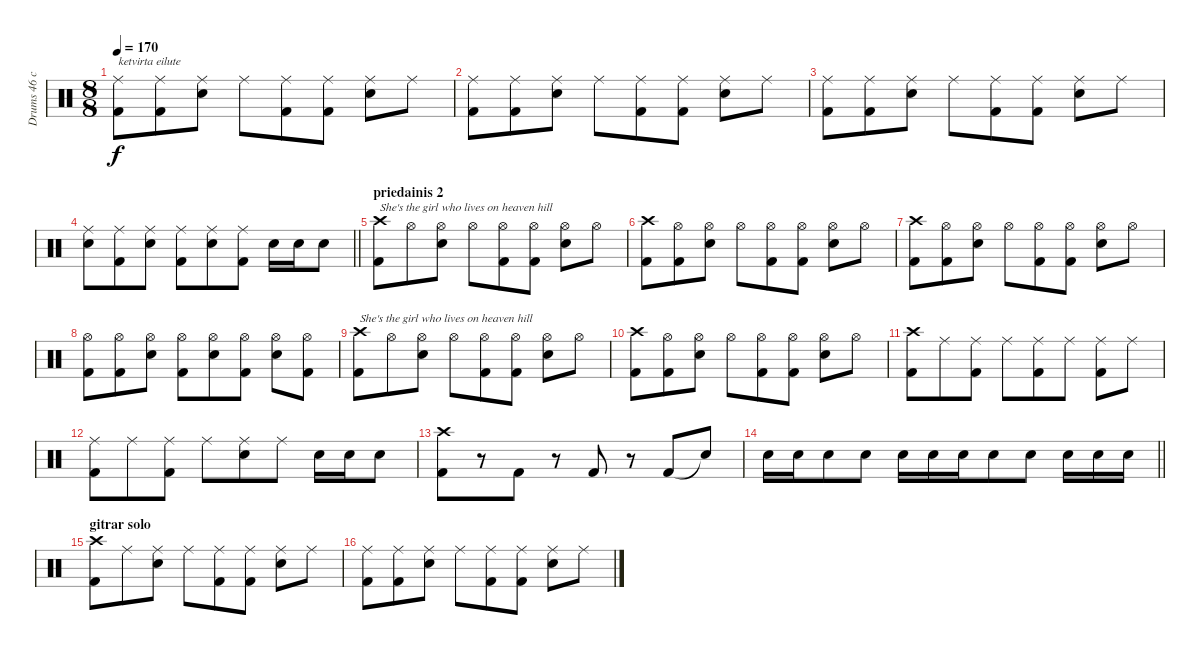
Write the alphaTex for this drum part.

\track ("Drums 46 chorus" "Drums 46 c") {mute instrument percussion}
\staff {score}
\articulation defaults
\ts (8 8)
\tempo 170
\clef neutral
\ks c
("Ride (middle)" "Kick (hit) 2").8{txt "ketvirta eilute" dy f} ("Ride (middle)" "Kick (hit) 2").8 ("Ride (middle)" "Snare (hit) 2").8 "Ride (middle)".8 ("Ride (middle)" "Kick (hit) 2").8 ("Ride (middle)" "Kick (hit) 2").8 ("Ride (middle)" "Snare (hit) 2").8 "Ride (middle)".8 |
("Ride (middle)" "Kick (hit) 2").8 ("Ride (middle)" "Kick (hit) 2").8 ("Ride (middle)" "Snare (hit) 2").8 "Ride (middle)".8 ("Ride (middle)" "Kick (hit) 2").8 ("Ride (middle)" "Kick (hit) 2").8 ("Ride (middle)" "Snare (hit) 2").8 "Ride (middle)".8 |
("Ride (middle)" "Kick (hit) 2").8 ("Ride (middle)" "Kick (hit) 2").8 ("Ride (middle)" "Snare (hit) 2").8 "Ride (middle)".8 ("Ride (middle)" "Kick (hit) 2").8 ("Ride (middle)" "Kick (hit) 2").8 ("Ride (middle)" "Snare (hit) 2").8 "Ride (middle)".8 |
\barLineRight lightlight
("Ride (middle)" "Snare (hit) 2").8 ("Ride (middle)" "Kick (hit) 2").8 ("Ride (middle)" "Snare (hit) 2").8 ("Ride (middle)" "Kick (hit) 2").8 ("Ride (middle)" "Snare (hit) 2").8 ("Ride (middle)" "Kick (hit) 2").8 "Snare (hit) 2".16 "Snare (hit) 2".16 "Snare (hit) 2".8 |
\section ("" "priedainis 2")
("Crash high (hit)" "Kick (hit) 2").8{txt "She's the girl who lives on heaven hill"} "Hi-Hat (open)".8 ("Hi-Hat (open)" "Snare (hit) 2").8 "Hi-Hat (open)".8 ("Hi-Hat (open)" "Kick (hit) 2").8 ("Hi-Hat (open)" "Kick (hit) 2").8 ("Hi-Hat (open)" "Snare (hit) 2").8 "Hi-Hat (open)".8 |
("Crash high (hit)" "Kick (hit) 2").8 ("Hi-Hat (open)" "Kick (hit) 2").8 ("Hi-Hat (open)" "Snare (hit) 2").8 "Hi-Hat (open)".8 ("Hi-Hat (open)" "Kick (hit) 2").8 ("Hi-Hat (open)" "Kick (hit) 2").8 ("Hi-Hat (open)" "Snare (hit) 2").8 "Hi-Hat (open)".8 |
("Crash high (hit)" "Kick (hit) 2").8 ("Hi-Hat (open)" "Kick (hit) 2").8 ("Hi-Hat (open)" "Snare (hit) 2").8 "Hi-Hat (open)".8 ("Hi-Hat (open)" "Kick (hit) 2").8 ("Hi-Hat (open)" "Kick (hit) 2").8 ("Hi-Hat (open)" "Snare (hit) 2").8 "Hi-Hat (open)".8 |
("Hi-Hat (open)" "Kick (hit) 2").8 ("Hi-Hat (open)" "Kick (hit) 2").8 ("Hi-Hat (open)" "Snare (hit) 2").8 ("Hi-Hat (open)" "Kick (hit) 2").8 ("Hi-Hat (open)" "Snare (hit) 2").8 ("Hi-Hat (open)" "Kick (hit) 2").8 ("Hi-Hat (open)" "Snare (hit) 2").8 ("Hi-Hat (open)" "Kick (hit) 2").8 |
("Crash high (hit)" "Kick (hit) 2").8{txt "She's the girl who lives on heaven hill"} "Hi-Hat (open)".8 ("Hi-Hat (open)" "Snare (hit) 2").8 "Hi-Hat (open)".8 ("Hi-Hat (open)" "Kick (hit) 2").8 ("Hi-Hat (open)" "Kick (hit) 2").8 ("Hi-Hat (open)" "Snare (hit) 2").8 "Hi-Hat (open)".8 |
("Crash high (hit)" "Kick (hit) 2").8 ("Hi-Hat (open)" "Kick (hit) 2").8 ("Hi-Hat (open)" "Snare (hit) 2").8 "Hi-Hat (open)".8 ("Hi-Hat (open)" "Kick (hit) 2").8 ("Hi-Hat (open)" "Kick (hit) 2").8 ("Hi-Hat (open)" "Snare (hit) 2").8 "Hi-Hat (open)".8 |
("Crash high (hit)" "Kick (hit) 2").8 "Ride (middle)".8 ("Ride (middle)" "Kick (hit) 2").8 "Ride (middle)".8 ("Ride (middle)" "Kick (hit) 2").8 "Ride (middle)".8 ("Ride (middle)" "Kick (hit) 2").8 "Ride (middle)".8 |
("Ride (middle)" "Kick (hit) 2").8 "Ride (middle)".8 ("Ride (middle)" "Kick (hit) 2").8 "Ride (middle)".8 ("Ride (middle)" "Snare (hit) 2").8 "Ride (middle)".8 "Snare (hit) 2".16 "Snare (hit) 2".16 "Snare (hit) 2".8 |
("Crash high (hit)" "Kick (hit) 2").8 r.8 "Kick (hit) 2".8 r.8 "Kick (hit) 2".8 r.8 "Kick (hit) 2".8 "Snare (hit)"{t}.8 |
\barLineRight lightlight "Snare (hit) 2".16 "Snare (hit) 2".16 "Snare (hit) 2".8 "Snare (hit) 2".8 "Snare (hit) 2".16 "Snare (hit) 2".16 "Snare (hit) 2".16 "Snare (hit) 2".8 "Snare (hit) 2".8 "Snare (hit) 2".16 "Snare (hit) 2".16 "Snare (hit) 2".16
|
\section ("" "gitrar solo")
("Crash high (hit)" "Kick (hit) 2").8 "Ride (middle)".8 ("Ride (middle)" "Snare (hit) 2").8 "Ride (middle)".8 ("Ride (middle)" "Kick (hit) 2").8 ("Ride (middle)" "Kick (hit) 2").8 ("Ride (middle)" "Snare (hit) 2").8 "Ride (middle)".8 |
("Ride (middle)" "Kick (hit) 2").8 ("Ride (middle)" "Kick (hit) 2").8 ("Ride (middle)" "Snare (hit) 2").8 "Ride (middle)".8 ("Ride (middle)" "Kick (hit) 2").8 ("Ride (middle)" "Kick (hit) 2").8 ("Ride (middle)" "Snare (hit) 2").8 "Ride (middle)".8
